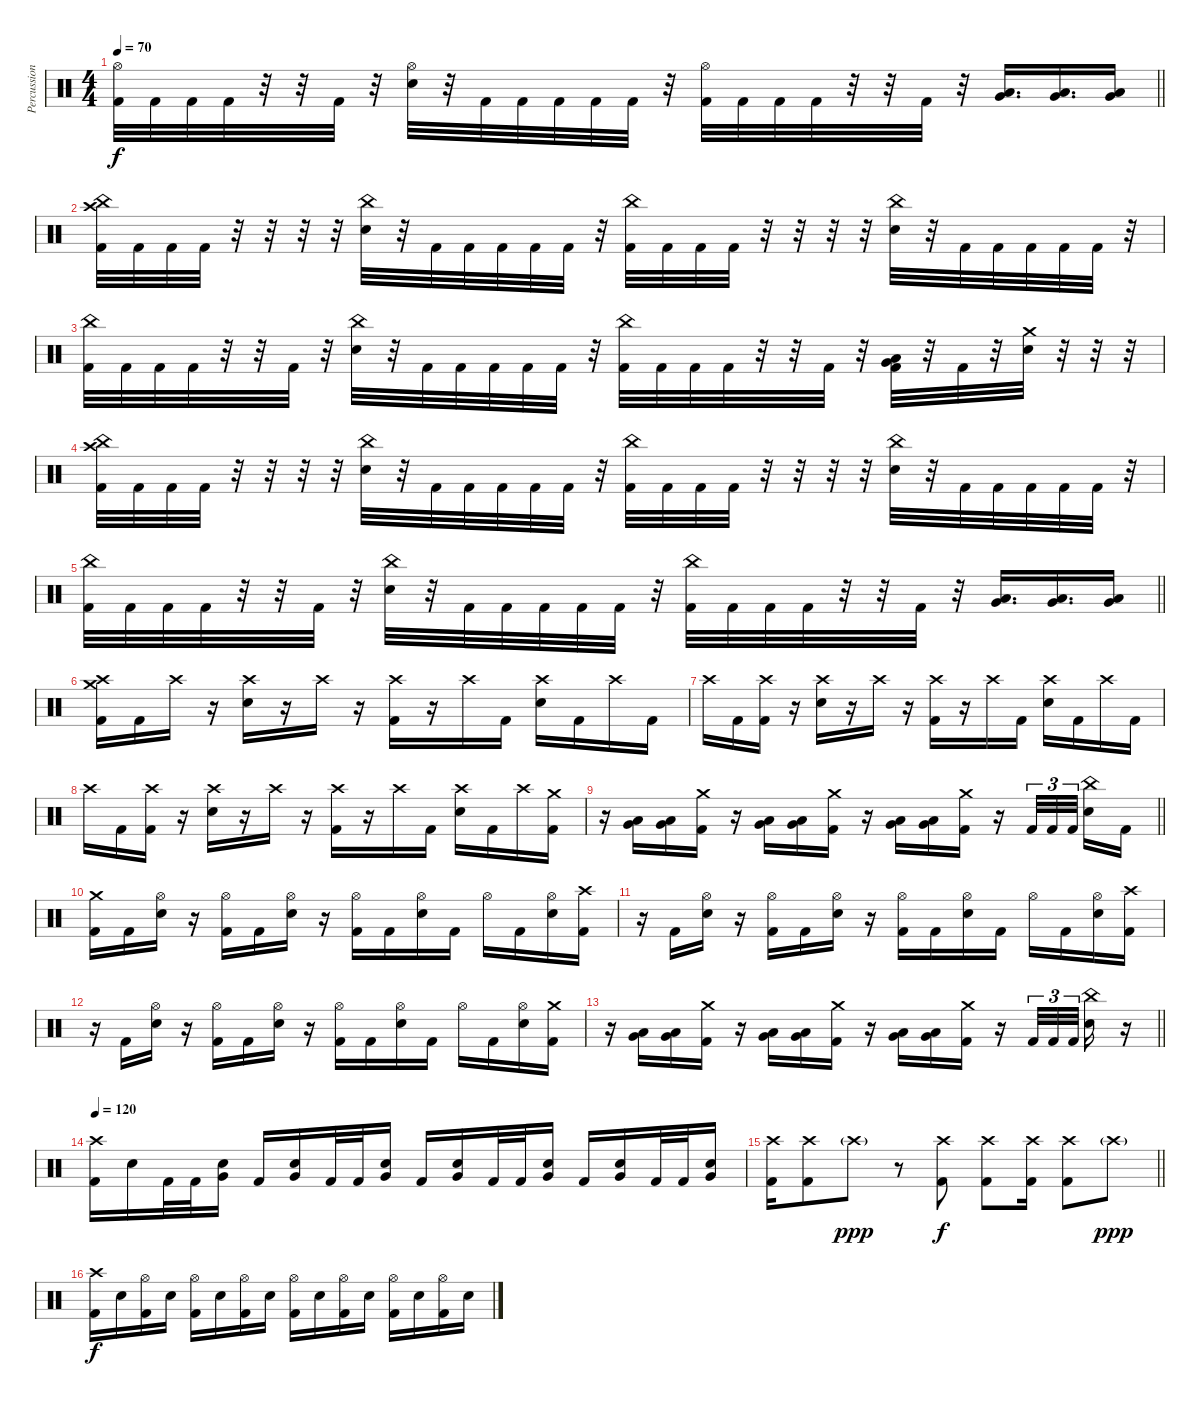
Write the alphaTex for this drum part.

\track ("Percussion" "Percussion") {instrument percussion}
\staff {score}
\articulation defaults
\ts (4 4)
\tempo 70
\clef neutral
\barLineRight lightlight
\ks c
("Hi-Hat (open)" "Kick (hit) 2").32{dy f} "Kick (hit) 2".32 "Kick (hit) 2".32 "Kick (hit) 2".32 r.32 r.32 "Kick (hit) 2".32 r.32 ("Hi-Hat (open)" "Snare (hit) 2").32 r.32 "Kick (hit) 2".32 "Kick (hit) 2".32 "Kick (hit) 2".32 "Kick (hit) 2".32 "Kick (hit) 2".32 r.32 ("Hi-Hat (open)" "Kick (hit) 2").32 "Kick (hit) 2".32 "Kick (hit) 2".32 "Kick (hit) 2".32 r.32 r.32 "Kick (hit) 2".32 r.32 ("Low Tom (hit)" "Very Low Tom (hit)").16{d} ("Low Tom (hit)" "Very Low Tom (hit)").16{d} ("Low Tom (hit)" "Very Low Tom (hit)").16 |
\section ("" "")
("Crash high (hit)" "China (hit)" "Kick (hit) 2").32 "Kick (hit) 2".32 "Kick (hit) 2".32 "Kick (hit) 2".32 r.32 r.32 r.32 r.32 ("China (hit)" "Snare (hit) 2").32 r.32 "Kick (hit) 2".32 "Kick (hit) 2".32 "Kick (hit) 2".32 "Kick (hit) 2".32 "Kick (hit) 2".32 r.32 ("China (hit)" "Kick (hit) 2").32 "Kick (hit) 2".32 "Kick (hit) 2".32 "Kick (hit) 2".32 r.32 r.32 r.32 r.32 ("China (hit)" "Snare (hit) 2").32 r.32 "Kick (hit) 2".32 "Kick (hit) 2".32 "Kick (hit) 2".32 "Kick (hit) 2".32 "Kick (hit) 2".32 r.32 |
("China (hit)" "Kick (hit) 2").32 "Kick (hit) 2".32 "Kick (hit) 2".32 "Kick (hit) 2".32 r.32 r.32 "Kick (hit) 2".32 r.32 ("China (hit)" "Snare (hit) 2").32 r.32 "Kick (hit) 2".32 "Kick (hit) 2".32 "Kick (hit) 2".32 "Kick (hit) 2".32 "Kick (hit) 2".32 r.32 ("China (hit)" "Kick (hit) 2").32 "Kick (hit) 2".32 "Kick (hit) 2".32 "Kick (hit) 2".32 r.32 r.32 "Kick (hit) 2".32 r.32 ("Low Tom (hit)" "Very Low Tom (hit)" "Kick (hit) 2").32 r.32 "Kick (hit) 2".32 r.32 ("Crash medium (hit)" "Snare (hit) 2").32 r.32 r.32 r.32 |
("Crash high (hit)" "China (hit)" "Kick (hit) 2").32 "Kick (hit) 2".32 "Kick (hit) 2".32 "Kick (hit) 2".32 r.32 r.32 r.32 r.32 ("China (hit)" "Snare (hit) 2").32 r.32 "Kick (hit) 2".32 "Kick (hit) 2".32 "Kick (hit) 2".32 "Kick (hit) 2".32 "Kick (hit) 2".32 r.32 ("China (hit)" "Kick (hit) 2").32 "Kick (hit) 2".32 "Kick (hit) 2".32 "Kick (hit) 2".32 r.32 r.32 r.32 r.32 ("China (hit)" "Snare (hit) 2").32 r.32 "Kick (hit) 2".32 "Kick (hit) 2".32 "Kick (hit) 2".32 "Kick (hit) 2".32 "Kick (hit) 2".32 r.32 |
\barLineRight lightlight
("China (hit)" "Kick (hit) 2").32 "Kick (hit) 2".32 "Kick (hit) 2".32 "Kick (hit) 2".32 r.32 r.32 "Kick (hit) 2".32 r.32 ("China (hit)" "Snare (hit) 2").32 r.32 "Kick (hit) 2".32 "Kick (hit) 2".32 "Kick (hit) 2".32 "Kick (hit) 2".32 "Kick (hit) 2".32 r.32 ("China (hit)" "Kick (hit) 2").32 "Kick (hit) 2".32 "Kick (hit) 2".32 "Kick (hit) 2".32 r.32 r.32 "Kick (hit) 2".32 r.32 ("Low Tom (hit)" "Very Low Tom (hit)").16{d} ("Low Tom (hit)" "Very Low Tom (hit)").16{d} ("Low Tom (hit)" "Very Low Tom (hit)").16 |
\section ("" "")
("Crash high (hit)" "Crash medium (hit)" "Kick (hit) 2").16 "Kick (hit) 2".16 "Crash high (hit)".16 r.16 ("Crash high (hit)" "Snare (hit) 2").16 r.16 "Crash high (hit)".16 r.16 ("Crash high (hit)" "Kick (hit) 2").16 r.16 "Crash high (hit)".16 "Kick (hit) 2".16 ("Crash high (hit)" "Snare (hit) 2").16 "Kick (hit) 2".16 "Crash high (hit)".16 "Kick (hit) 2".16 |
"Crash high (hit)".16 "Kick (hit) 2".16 ("Crash high (hit)" "Kick (hit) 2").16 r.16 ("Crash high (hit)" "Snare (hit) 2").16 r.16 "Crash high (hit)".16 r.16 ("Crash high (hit)" "Kick (hit) 2").16 r.16 "Crash high (hit)".16 "Kick (hit) 2".16 ("Crash high (hit)" "Snare (hit) 2").16 "Kick (hit) 2".16 "Crash high (hit)".16 "Kick (hit) 2".16 |
"Crash high (hit)".16 "Kick (hit) 2".16 ("Crash high (hit)" "Kick (hit) 2").16 r.16 ("Crash high (hit)" "Snare (hit) 2").16 r.16 "Crash high (hit)".16 r.16 ("Crash high (hit)" "Kick (hit) 2").16 r.16 "Crash high (hit)".16 "Kick (hit) 2".16 ("Crash high (hit)" "Snare (hit) 2").16 "Kick (hit) 2".16 "Crash high (hit)".16 ("Crash medium (hit)" "Kick (hit) 2").16 |
\barLineRight lightlight
r.16 ("Low Tom (hit)" "Very Low Tom (hit)").16 ("Low Tom (hit)" "Very Low Tom (hit)").16 ("Crash medium (hit)" "Kick (hit) 2").16 r.16 ("Low Tom (hit)" "Very Low Tom (hit)").16 ("Low Tom (hit)" "Very Low Tom (hit)").16 ("Crash medium (hit)" "Kick (hit) 2").16 r.16 ("Low Tom (hit)" "Very Low Tom (hit)").16 ("Low Tom (hit)" "Very Low Tom (hit)").16 ("Crash medium (hit)" "Kick (hit) 2").16 r.16 "Kick (hit) 2".32{tu (3 2)} "Kick (hit) 2".32{tu (3 2)} "Kick (hit) 2".32{tu (3 2) beam splitsecondary} ("China (hit)" "Snare (hit) 2").16 "Kick (hit) 2".16 |
\section ("" "")
("Crash medium (hit)" "Kick (hit) 2").16 "Kick (hit) 2".16 ("Hi-Hat (open)" "Snare (hit) 2").16 r.16 ("Hi-Hat (open)" "Kick (hit) 2").16 "Kick (hit) 2".16 ("Hi-Hat (open)" "Snare (hit) 2").16 r.16 ("Hi-Hat (open)" "Kick (hit) 2").16 "Kick (hit) 2".16 ("Hi-Hat (open)" "Snare (hit) 2").16 "Kick (hit) 2".16 "Hi-Hat (open)".16 "Kick (hit) 2".16 ("Hi-Hat (open)" "Snare (hit) 2").16 ("Crash high (hit)" "Kick (hit) 2").16 |
r.16 "Kick (hit) 2".16 ("Hi-Hat (open)" "Snare (hit) 2").16 r.16 ("Hi-Hat (open)" "Kick (hit) 2").16 "Kick (hit) 2".16 ("Hi-Hat (open)" "Snare (hit) 2").16 r.16 ("Hi-Hat (open)" "Kick (hit) 2").16 "Kick (hit) 2".16 ("Hi-Hat (open)" "Snare (hit) 2").16 "Kick (hit) 2".16 "Hi-Hat (open)".16 "Kick (hit) 2".16 ("Hi-Hat (open)" "Snare (hit) 2").16 ("Crash high (hit)" "Kick (hit) 2").16 |
r.16 "Kick (hit) 2".16 ("Hi-Hat (open)" "Snare (hit) 2").16 r.16 ("Hi-Hat (open)" "Kick (hit) 2").16 "Kick (hit) 2".16 ("Hi-Hat (open)" "Snare (hit) 2").16 r.16 ("Hi-Hat (open)" "Kick (hit) 2").16 "Kick (hit) 2".16 ("Hi-Hat (open)" "Snare (hit) 2").16 "Kick (hit) 2".16 "Hi-Hat (open)".16 "Kick (hit) 2".16 ("Hi-Hat (open)" "Snare (hit) 2").16 ("Crash medium (hit)" "Kick (hit) 2").16 |
\barLineRight lightlight
r.16 ("Low Tom (hit)" "Very Low Tom (hit)").16 ("Low Tom (hit)" "Very Low Tom (hit)").16 ("Crash medium (hit)" "Kick (hit) 2").16 r.16 ("Low Tom (hit)" "Very Low Tom (hit)").16 ("Low Tom (hit)" "Very Low Tom (hit)").16 ("Crash medium (hit)" "Kick (hit) 2").16 r.16 ("Low Tom (hit)" "Very Low Tom (hit)").16 ("Low Tom (hit)" "Very Low Tom (hit)").16 ("Crash medium (hit)" "Kick (hit) 2").16 r.16 "Kick (hit) 2".32{tu (3 2)} "Kick (hit) 2".32{tu (3 2)} "Kick (hit) 2".32{tu (3 2) beam splitsecondary} ("China (hit)" "Snare (hit) 2").16 r.16 |
\section ("" "")
\tempo 120
("Crash high (hit)" "Kick (hit) 2").16 "Snare (hit) 2".16 "Kick (hit) 2".32 "Kick (hit) 2".32 ("Very Low Tom (hit)" "Snare (hit) 2").16 "Kick (hit) 2".16 ("Very Low Tom (hit)" "Snare (hit) 2").16 "Kick (hit) 2".32 "Kick (hit) 2".32 ("Very Low Tom (hit)" "Snare (hit) 2").16 "Kick (hit) 2".16 ("Very Low Tom (hit)" "Snare (hit) 2").16 "Kick (hit) 2".32 "Kick (hit) 2".32 ("Very Low Tom (hit)" "Snare (hit) 2").16 "Kick (hit) 2".16 ("Very Low Tom (hit)" "Snare (hit) 2").16 "Kick (hit) 2".32 "Kick (hit) 2".32 ("Very Low Tom (hit)" "Snare (hit) 2").16 |
\barLineRight lightlight
("Crash high (hit)" "Kick (hit) 2").16 ("Crash high (hit)" "Kick (hit) 2").8 "Crash high (hit)"{g}.8{dy ppp} r.8 ("Crash high (hit)" "Kick (hit) 2").8{dy f} ("Crash high (hit)" "Kick (hit) 2").8 ("Crash high (hit)" "Kick (hit) 2").16 ("Crash high (hit)" "Kick (hit) 2").8 "Crash high (hit)"{g}.8{dy ppp} |
\section ("" "")
("Crash high (hit)" "Kick (hit) 2").16{dy f} "Snare (hit) 2".16 ("Hi-Hat (open)" "Kick (hit) 2").16 "Snare (hit) 2".16 ("Hi-Hat (open)" "Kick (hit) 2").16 "Snare (hit) 2".16 ("Hi-Hat (open)" "Kick (hit) 2").16 "Snare (hit) 2".16 ("Hi-Hat (open)" "Kick (hit) 2").16 "Snare (hit) 2".16 ("Hi-Hat (open)" "Kick (hit) 2").16 "Snare (hit) 2".16 ("Hi-Hat (open)" "Kick (hit) 2").16 "Snare (hit) 2".16 ("Hi-Hat (open)" "Kick (hit) 2").16 "Snare (hit) 2".16
